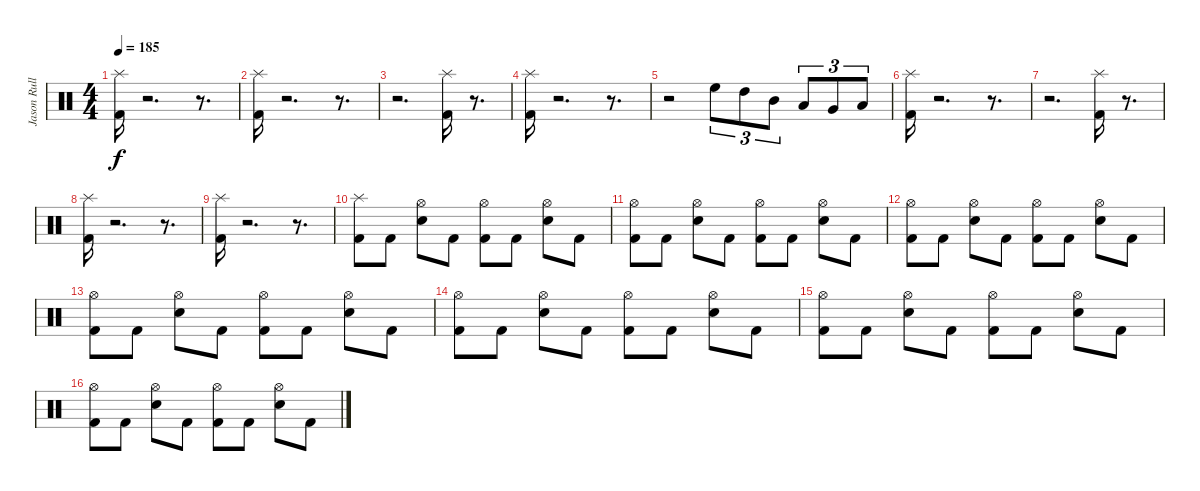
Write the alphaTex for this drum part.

\track ("Jason Rullo" "Jason Rull") {instrument percussion}
\staff {score}
\articulation defaults
\ts (4 4)
\tempo 185
\clef neutral
\ks c
("Splash (hit)" "Kick (hit) 2").16{dy f} r.2{d} r.8{d} |
("Splash (hit)" "Kick (hit) 2").16 r.2{d} r.8{d} |
r.2{d} ("Splash (hit)" "Kick (hit) 2").16 r.8{d} |
("Splash (hit)" "Kick (hit) 2").16 r.2{d} r.8{d} |
r.2 "High Floor Tom (hit)".8{tu (3 2)} "High Tom (hit)".8{tu (3 2)} "Mid Tom (hit)".8{tu (3 2)} "Low Tom (hit)".8{tu (3 2)} "Very Low Tom (hit)".8{tu (3 2)} "Low Floor Tom (hit)".8{tu (3 2)} |
("Splash (hit)" "Kick (hit) 2").16 r.2{d} r.8{d} |
r.2{d} ("Splash (hit)" "Kick (hit) 2").16 r.8{d} |
("Splash (hit)" "Kick (hit) 2").16 r.2{d} r.8{d} |
("Splash (hit)" "Kick (hit) 2").16 r.2{d} r.8{d} |
("Splash (hit)" "Kick (hit) 2").8 "Kick (hit) 2".8 ("Hi-Hat (open)" "Snare (hit) 2").8 "Kick (hit) 2".8 ("Hi-Hat (open)" "Kick (hit) 2").8 "Kick (hit) 2".8 ("Hi-Hat (open)" "Snare (hit) 2").8 "Kick (hit) 2".8 |
("Hi-Hat (open)" "Kick (hit) 2").8 "Kick (hit) 2".8 ("Hi-Hat (open)" "Snare (hit) 2").8 "Kick (hit) 2".8 ("Hi-Hat (open)" "Kick (hit) 2").8 "Kick (hit) 2".8 ("Hi-Hat (open)" "Snare (hit) 2").8 "Kick (hit) 2".8 |
("Hi-Hat (open)" "Kick (hit) 2").8 "Kick (hit) 2".8 ("Hi-Hat (open)" "Snare (hit) 2").8 "Kick (hit) 2".8 ("Hi-Hat (open)" "Kick (hit) 2").8 "Kick (hit) 2".8 ("Hi-Hat (open)" "Snare (hit) 2").8 "Kick (hit) 2".8 |
("Hi-Hat (open)" "Kick (hit) 2").8 "Kick (hit) 2".8 ("Hi-Hat (open)" "Snare (hit) 2").8 "Kick (hit) 2".8 ("Hi-Hat (open)" "Kick (hit) 2").8 "Kick (hit) 2".8 ("Hi-Hat (open)" "Snare (hit) 2").8 "Kick (hit) 2".8 |
("Hi-Hat (open)" "Kick (hit) 2").8 "Kick (hit) 2".8 ("Hi-Hat (open)" "Snare (hit) 2").8 "Kick (hit) 2".8 ("Hi-Hat (open)" "Kick (hit) 2").8 "Kick (hit) 2".8 ("Hi-Hat (open)" "Snare (hit) 2").8 "Kick (hit) 2".8 |
("Hi-Hat (open)" "Kick (hit) 2").8 "Kick (hit) 2".8 ("Hi-Hat (open)" "Snare (hit) 2").8 "Kick (hit) 2".8 ("Hi-Hat (open)" "Kick (hit) 2").8 "Kick (hit) 2".8 ("Hi-Hat (open)" "Snare (hit) 2").8 "Kick (hit) 2".8 |
("Hi-Hat (open)" "Kick (hit) 2").8 "Kick (hit) 2".8 ("Hi-Hat (open)" "Snare (hit) 2").8 "Kick (hit) 2".8 ("Hi-Hat (open)" "Kick (hit) 2").8 "Kick (hit) 2".8 ("Hi-Hat (open)" "Snare (hit) 2").8 "Kick (hit) 2".8
